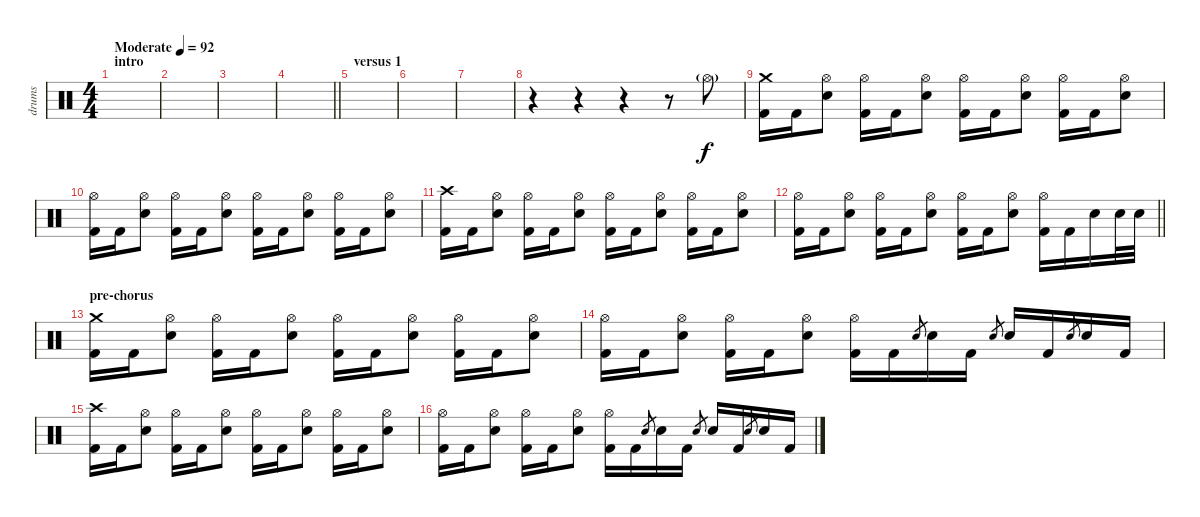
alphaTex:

\track ("drums" "drums") {instrument percussion}
\staff {score}
\articulation defaults
\ts (4 4)
\section ("" "intro")
\tempo (92 "Moderate")
\clef neutral
\ks c
|
|
|
\barLineRight lightlight
|
\section ("" "versus 1")
|
|
|
r.4 r.4 r.4 r.8 "Hi-Hat (open)"{g}.8 |
("Crash medium (hit)" "Kick (hit) 2").16{dy f} "Kick (hit) 2".16 ("Hi-Hat (open)" "Snare (hit) 2").8 ("Hi-Hat (open)" "Kick (hit) 2").16 "Kick (hit) 2".16 ("Hi-Hat (open)" "Snare (hit) 2").8 ("Hi-Hat (open)" "Kick (hit) 2").16 "Kick (hit) 2".16 ("Hi-Hat (open)" "Snare (hit) 2").8 ("Hi-Hat (open)" "Kick (hit) 2").16 "Kick (hit) 2".16 ("Hi-Hat (open)" "Snare (hit) 2").8 |
("Hi-Hat (open)" "Kick (hit) 2").16 "Kick (hit) 2".16 ("Hi-Hat (open)" "Snare (hit) 2").8 ("Hi-Hat (open)" "Kick (hit) 2").16 "Kick (hit) 2".16 ("Hi-Hat (open)" "Snare (hit) 2").8 ("Hi-Hat (open)" "Kick (hit) 2").16 "Kick (hit) 2".16 ("Hi-Hat (open)" "Snare (hit) 2").8 ("Hi-Hat (open)" "Kick (hit) 2").16 "Kick (hit) 2".16 ("Hi-Hat (open)" "Snare (hit) 2").8 |
("Crash high (hit)" "Kick (hit) 2").16 "Kick (hit) 2".16 ("Hi-Hat (open)" "Snare (hit) 2").8 ("Hi-Hat (open)" "Kick (hit) 2").16 "Kick (hit) 2".16 ("Hi-Hat (open)" "Snare (hit) 2").8 ("Hi-Hat (open)" "Kick (hit) 2").16 "Kick (hit) 2".16 ("Hi-Hat (open)" "Snare (hit) 2").8 ("Hi-Hat (open)" "Kick (hit) 2").16 "Kick (hit) 2".16 ("Hi-Hat (open)" "Snare (hit) 2").8 |
\barLineRight lightlight
("Hi-Hat (open)" "Kick (hit) 2").16 "Kick (hit) 2".16 ("Hi-Hat (open)" "Snare (hit) 2").8 ("Hi-Hat (open)" "Kick (hit) 2").16 "Kick (hit) 2".16 ("Hi-Hat (open)" "Snare (hit) 2").8 ("Hi-Hat (open)" "Kick (hit) 2").16 "Kick (hit) 2".16 ("Hi-Hat (open)" "Snare (hit) 2").8 ("Hi-Hat (open)" "Kick (hit) 2").16 "Kick (hit) 2".16 "Snare (hit) 2".16 "Snare (hit) 2".32 "Snare (hit) 2".32 |
\section ("" "pre-chorus")
("Crash medium (hit)" "Kick (hit) 2").16 "Kick (hit) 2".16 ("Hi-Hat (open)" "Snare (hit) 2").8 ("Hi-Hat (open)" "Kick (hit) 2").16 "Kick (hit) 2".16 ("Hi-Hat (open)" "Snare (hit) 2").8 ("Hi-Hat (open)" "Kick (hit) 2").16 "Kick (hit) 2".16 ("Hi-Hat (open)" "Snare (hit) 2").8 ("Hi-Hat (open)" "Kick (hit) 2").16 "Kick (hit) 2".16 ("Hi-Hat (open)" "Snare (hit) 2").8 |
("Hi-Hat (open)" "Kick (hit) 2").16 "Kick (hit) 2".16 ("Hi-Hat (open)" "Snare (hit) 2").8 ("Hi-Hat (open)" "Kick (hit) 2").16 "Kick (hit) 2".16 ("Hi-Hat (open)" "Snare (hit) 2").8 ("Hi-Hat (open)" "Kick (hit) 2").16 "Kick (hit) 2".16 "Snare (hit) 2".8{gr} "Snare (hit) 2".16 "Kick (hit) 2".16 "Snare (hit) 2".8{gr} "Snare (hit) 2".16 "Kick (hit) 2".16 "Snare (hit) 2".8{gr} "Snare (hit) 2".16 "Kick (hit) 2".16 |
("Crash high (hit)" "Kick (hit) 2").16 "Kick (hit) 2".16 ("Hi-Hat (open)" "Snare (hit) 2").8 ("Hi-Hat (open)" "Kick (hit) 2").16 "Kick (hit) 2".16 ("Hi-Hat (open)" "Snare (hit) 2").8 ("Hi-Hat (open)" "Kick (hit) 2").16 "Kick (hit) 2".16 ("Hi-Hat (open)" "Snare (hit) 2").8 ("Hi-Hat (open)" "Kick (hit) 2").16 "Kick (hit) 2".16 ("Hi-Hat (open)" "Snare (hit) 2").8 |
("Hi-Hat (open)" "Kick (hit) 2").16 "Kick (hit) 2".16 ("Hi-Hat (open)" "Snare (hit) 2").8 ("Hi-Hat (open)" "Kick (hit) 2").16 "Kick (hit) 2".16 ("Hi-Hat (open)" "Snare (hit) 2").8 ("Hi-Hat (open)" "Kick (hit) 2").16 "Kick (hit) 2".16 "Snare (hit) 2".8{gr} "Snare (hit) 2".16 "Kick (hit) 2".16 "Snare (hit) 2".8{gr} "Snare (hit) 2".16 "Kick (hit) 2".16 "Snare (hit) 2".8{gr} "Snare (hit) 2".16 "Kick (hit) 2".16
